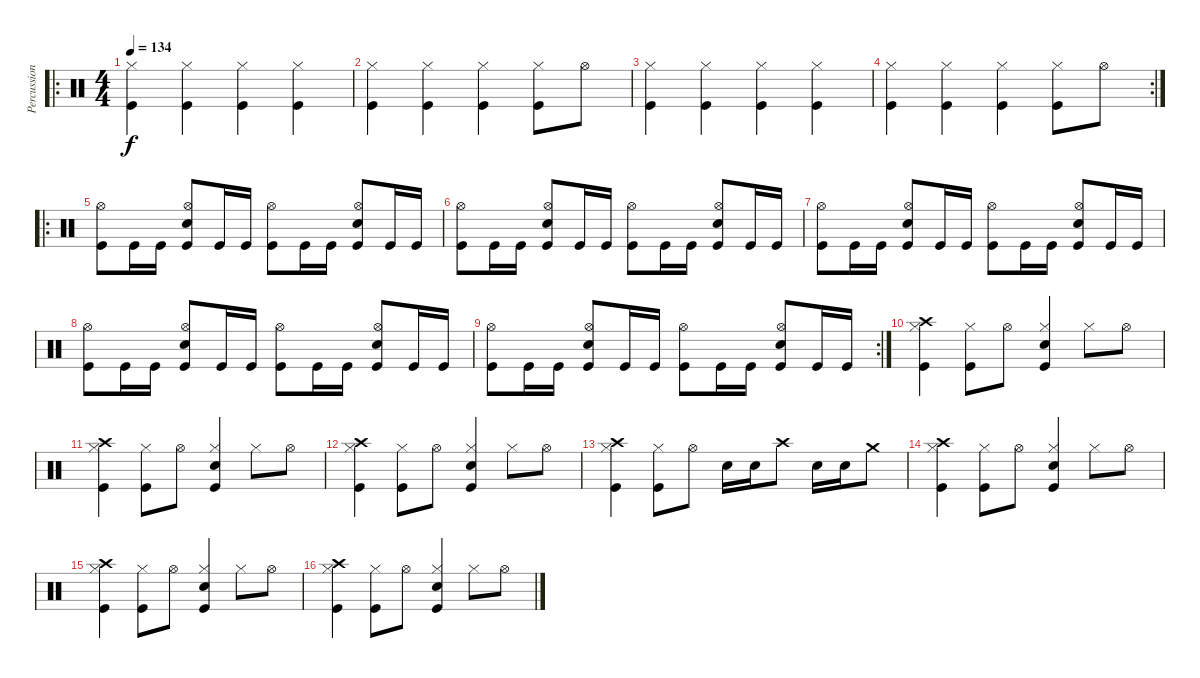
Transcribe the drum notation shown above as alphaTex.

\track ("Percussion" "Percussion") {instrument percussion}
\staff {score}
\articulation defaults
\ro
\ts (4 4)
\tempo 134
\clef neutral
\ks c
("Kick (hit)" "Hi-Hat (closed)").4{dy f} ("Kick (hit)" "Hi-Hat (closed)").4 ("Kick (hit)" "Hi-Hat (closed)").4 ("Kick (hit)" "Hi-Hat (closed)").4 |
("Kick (hit)" "Hi-Hat (closed)").4 ("Kick (hit)" "Hi-Hat (closed)").4 ("Kick (hit)" "Hi-Hat (closed)").4 ("Kick (hit)" "Hi-Hat (closed)").8 "Hi-Hat (open)".8 |
("Kick (hit)" "Hi-Hat (closed)").4 ("Kick (hit)" "Hi-Hat (closed)").4 ("Kick (hit)" "Hi-Hat (closed)").4 ("Kick (hit)" "Hi-Hat (closed)").4 |
\rc 2
("Kick (hit)" "Hi-Hat (closed)").4 ("Kick (hit)" "Hi-Hat (closed)").4 ("Kick (hit)" "Hi-Hat (closed)").4 ("Kick (hit)" "Hi-Hat (closed)").8 "Hi-Hat (open)".8 |
\ro
("Hi-Hat (open)" "Kick (hit)").8 "Kick (hit)".16 "Kick (hit)".16 ("Hi-Hat (open)" "Kick (hit)" "Snare (hit) 2").8 "Kick (hit)".16 "Kick (hit)".16 ("Hi-Hat (open)" "Kick (hit)").8 "Kick (hit)".16 "Kick (hit)".16 ("Hi-Hat (open)" "Kick (hit)" "Snare (hit) 2").8 "Kick (hit)".16 "Kick (hit)".16 |
("Hi-Hat (open)" "Kick (hit)").8 "Kick (hit)".16 "Kick (hit)".16 ("Hi-Hat (open)" "Kick (hit)" "Snare (hit) 2").8 "Kick (hit)".16 "Kick (hit)".16 ("Hi-Hat (open)" "Kick (hit)").8 "Kick (hit)".16 "Kick (hit)".16 ("Hi-Hat (open)" "Kick (hit)" "Snare (hit) 2").8 "Kick (hit)".16 "Kick (hit)".16 |
("Hi-Hat (open)" "Kick (hit)").8 "Kick (hit)".16 "Kick (hit)".16 ("Hi-Hat (open)" "Kick (hit)" "Snare (hit) 2").8 "Kick (hit)".16 "Kick (hit)".16 ("Hi-Hat (open)" "Kick (hit)").8 "Kick (hit)".16 "Kick (hit)".16 ("Hi-Hat (open)" "Kick (hit)" "Snare (hit) 2").8 "Kick (hit)".16 "Kick (hit)".16 |
("Hi-Hat (open)" "Kick (hit)").8 "Kick (hit)".16 "Kick (hit)".16 ("Hi-Hat (open)" "Kick (hit)" "Snare (hit) 2").8 "Kick (hit)".16 "Kick (hit)".16 ("Hi-Hat (open)" "Kick (hit)").8 "Kick (hit)".16 "Kick (hit)".16 ("Hi-Hat (open)" "Kick (hit)" "Snare (hit) 2").8 "Kick (hit)".16 "Kick (hit)".16 |
\rc 2
("Hi-Hat (open)" "Kick (hit)").8 "Kick (hit)".16 "Kick (hit)".16 ("Hi-Hat (open)" "Kick (hit)" "Snare (hit) 2").8 "Kick (hit)".16 "Kick (hit)".16 ("Hi-Hat (open)" "Kick (hit)").8 "Kick (hit)".16 "Kick (hit)".16 ("Hi-Hat (open)" "Kick (hit)" "Snare (hit) 2").8 "Kick (hit)".16 "Kick (hit)".16 |
("Hi-Hat (closed)" "Kick (hit)" "Crash high (hit)").4 ("Hi-Hat (closed)" "Kick (hit)").8 "Hi-Hat (open)".8 ("Hi-Hat (closed)" "Kick (hit)" "Snare (hit) 2").4 "Hi-Hat (closed)".8 "Hi-Hat (open)".8 |
("Hi-Hat (closed)" "Kick (hit)" "Crash high (hit)").4 ("Hi-Hat (closed)" "Kick (hit)").8 "Hi-Hat (open)".8 ("Hi-Hat (closed)" "Kick (hit)" "Snare (hit) 2").4 "Hi-Hat (closed)".8 "Hi-Hat (open)".8 |
("Hi-Hat (closed)" "Kick (hit)" "Crash high (hit)").4 ("Hi-Hat (closed)" "Kick (hit)").8 "Hi-Hat (open)".8 ("Hi-Hat (closed)" "Kick (hit)" "Snare (hit) 2").4 "Hi-Hat (closed)".8 "Hi-Hat (open)".8 |
("Hi-Hat (closed)" "Kick (hit)" "Crash high (hit)").4 ("Hi-Hat (closed)" "Kick (hit)").8 "Hi-Hat (open)".8 "Snare (hit) 2".16 "Snare (hit) 2".16 "Crash high (hit)".8 "Snare (hit) 2".16 "Snare (hit) 2".16 "Crash medium (hit)".8 |
("Hi-Hat (closed)" "Kick (hit)" "Crash high (hit)").4 ("Hi-Hat (closed)" "Kick (hit)").8 "Hi-Hat (open)".8 ("Hi-Hat (closed)" "Kick (hit)" "Snare (hit) 2").4 "Hi-Hat (closed)".8 "Hi-Hat (open)".8 |
("Hi-Hat (closed)" "Kick (hit)" "Crash high (hit)").4 ("Hi-Hat (closed)" "Kick (hit)").8 "Hi-Hat (open)".8 ("Hi-Hat (closed)" "Kick (hit)" "Snare (hit) 2").4 "Hi-Hat (closed)".8 "Hi-Hat (open)".8 |
("Hi-Hat (closed)" "Kick (hit)" "Crash high (hit)").4 ("Hi-Hat (closed)" "Kick (hit)").8 "Hi-Hat (open)".8 ("Hi-Hat (closed)" "Kick (hit)" "Snare (hit) 2").4 "Hi-Hat (closed)".8 "Hi-Hat (open)".8
